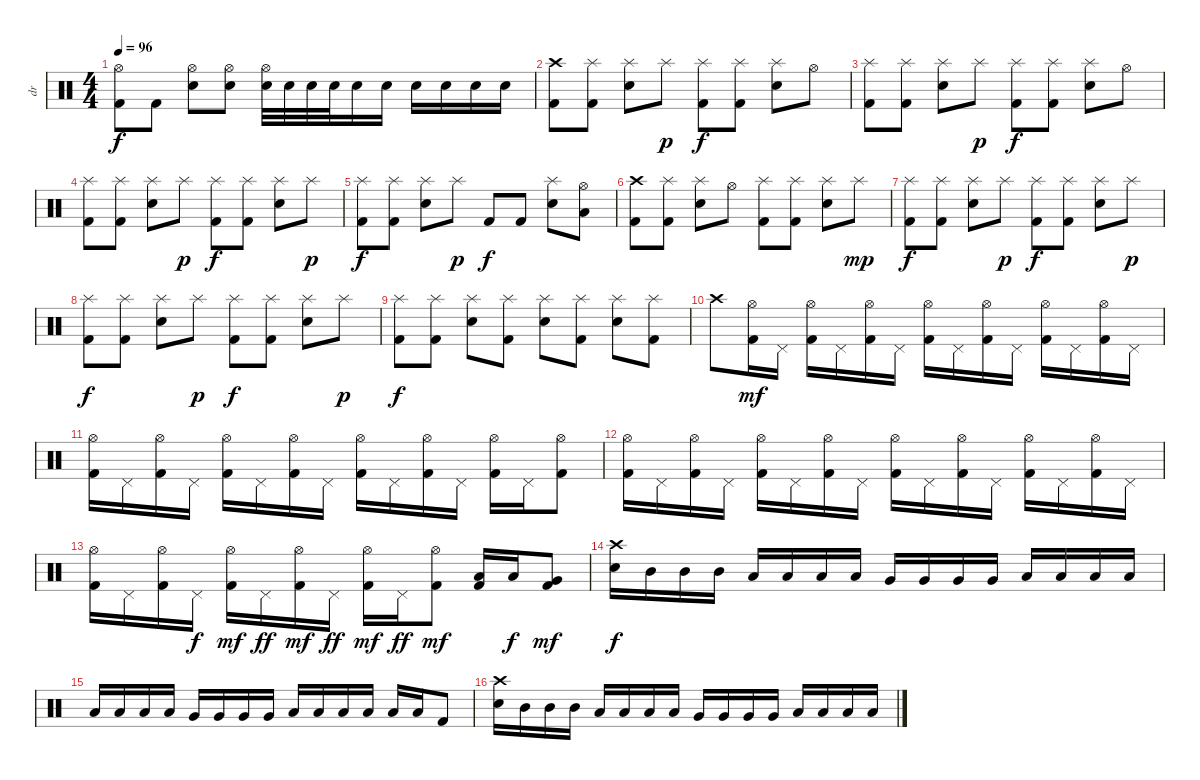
\track ("dr" "dr") {instrument percussion}
\staff {score}
\articulation defaults
\ts (4 4)
\tempo 96
\clef neutral
\ks c
("Hi-Hat (open)" "Kick (hit) 2").8{dy f} "Kick (hit) 2".8 ("Hi-Hat (open)" "Electric Snare (hit)").8 ("Hi-Hat (open)" "Electric Snare (hit)").8 ("Hi-Hat (open)" "Electric Snare (hit)").32 "Electric Snare (hit)".32 "Electric Snare (hit)".32 "Electric Snare (hit)".32 "Electric Snare (hit)".16 "Electric Snare (hit)".16 "Electric Snare (hit)".16 "Electric Snare (hit)".16 "Electric Snare (hit)".16 "Electric Snare (hit)".16 |
("Crash high (hit)" "Kick (hit) 2").8 ("Splash (hit)" "Kick (hit) 2").8 ("Splash (hit)" "Electric Snare (hit)").8 "Splash (hit)".8{dy p} ("Splash (hit)" "Kick (hit) 2").8{dy f} ("Splash (hit)" "Kick (hit) 2").8 ("Splash (hit)" "Electric Snare (hit)").8 "Hi-Hat (open)".8 |
("Splash (hit)" "Kick (hit) 2").8 ("Splash (hit)" "Kick (hit) 2").8 ("Splash (hit)" "Electric Snare (hit)").8 "Splash (hit)".8{dy p} ("Splash (hit)" "Kick (hit) 2").8{dy f} ("Splash (hit)" "Kick (hit) 2").8 ("Splash (hit)" "Electric Snare (hit)").8 "Hi-Hat (open)".8 |
("Splash (hit)" "Kick (hit) 2").8 ("Splash (hit)" "Kick (hit) 2").8 ("Splash (hit)" "Electric Snare (hit)").8 "Splash (hit)".8{dy p} ("Splash (hit)" "Kick (hit) 2").8{dy f} ("Splash (hit)" "Kick (hit) 2").8 ("Splash (hit)" "Electric Snare (hit)").8 "Splash (hit)".8{dy p} |
("Splash (hit)" "Kick (hit) 2").8{dy f} ("Splash (hit)" "Kick (hit) 2").8 ("Splash (hit)" "Electric Snare (hit)").8 "Splash (hit)".8{dy p} "Kick (hit) 2".8{dy f} "Kick (hit) 2".8 ("Splash (hit)" "Electric Snare (hit)").8 ("Hi-Hat (open)" "Low Tom (hit)").8 |
("Crash high (hit)" "Kick (hit) 2").8 ("Splash (hit)" "Kick (hit) 2").8 ("Splash (hit)" "Electric Snare (hit)").8 "Hi-Hat (open)".8 ("Splash (hit)" "Kick (hit) 2").8 ("Splash (hit)" "Kick (hit) 2").8 ("Splash (hit)" "Electric Snare (hit)").8 "Splash (hit)".8{dy mp} |
("Splash (hit)" "Kick (hit) 2").8{dy f} ("Splash (hit)" "Kick (hit) 2").8 ("Splash (hit)" "Electric Snare (hit)").8 "Splash (hit)".8{dy p} ("Splash (hit)" "Kick (hit) 2").8{dy f} ("Splash (hit)" "Kick (hit) 2").8 ("Splash (hit)" "Electric Snare (hit)").8 "Splash (hit)".8{dy p} |
("Splash (hit)" "Kick (hit) 2").8{dy f} ("Splash (hit)" "Kick (hit) 2").8 ("Splash (hit)" "Electric Snare (hit)").8 "Splash (hit)".8{dy p} ("Splash (hit)" "Kick (hit) 2").8{dy f} ("Splash (hit)" "Kick (hit) 2").8 ("Splash (hit)" "Electric Snare (hit)").8 "Splash (hit)".8{dy p} |
("Splash (hit)" "Kick (hit) 2").8{dy f} ("Splash (hit)" "Kick (hit) 2").8 ("Splash (hit)" "Electric Snare (hit)").8 ("Splash (hit)" "Kick (hit) 2").8 ("Splash (hit)" "Electric Snare (hit)").8 ("Splash (hit)" "Kick (hit) 2").8 ("Splash (hit)" "Electric Snare (hit)").8 ("Splash (hit)" "Kick (hit) 2").8 |
"Crash high (hit)".8 ("Hi-Hat (open)" "Kick (hit) 2").16{dy mf} "Pedal Hi-Hat (hit)".16 ("Hi-Hat (open)" "Kick (hit) 2").16 "Pedal Hi-Hat (hit)".16 ("Hi-Hat (open)" "Kick (hit) 2").16 "Pedal Hi-Hat (hit)".16 ("Hi-Hat (open)" "Kick (hit) 2").16 "Pedal Hi-Hat (hit)".16 ("Hi-Hat (open)" "Kick (hit) 2").16 "Pedal Hi-Hat (hit)".16 ("Hi-Hat (open)" "Kick (hit) 2").16 "Pedal Hi-Hat (hit)".16 ("Hi-Hat (open)" "Kick (hit) 2").16 "Pedal Hi-Hat (hit)".16 |
("Hi-Hat (open)" "Kick (hit) 2").16 "Pedal Hi-Hat (hit)".16 ("Hi-Hat (open)" "Kick (hit) 2").16 "Pedal Hi-Hat (hit)".16 ("Hi-Hat (open)" "Kick (hit) 2").16 "Pedal Hi-Hat (hit)".16 ("Hi-Hat (open)" "Kick (hit) 2").16 "Pedal Hi-Hat (hit)".16 ("Hi-Hat (open)" "Kick (hit) 2").16 "Pedal Hi-Hat (hit)".16 ("Hi-Hat (open)" "Kick (hit) 2").16 "Pedal Hi-Hat (hit)".16 ("Hi-Hat (open)" "Kick (hit) 2").16 "Pedal Hi-Hat (hit)".16 ("Hi-Hat (open)" "Kick (hit) 2").8 |
("Hi-Hat (open)" "Kick (hit) 2").16 "Pedal Hi-Hat (hit)".16 ("Hi-Hat (open)" "Kick (hit) 2").16 "Pedal Hi-Hat (hit)".16 ("Hi-Hat (open)" "Kick (hit) 2").16 "Pedal Hi-Hat (hit)".16 ("Hi-Hat (open)" "Kick (hit) 2").16 "Pedal Hi-Hat (hit)".16 ("Hi-Hat (open)" "Kick (hit) 2").16 "Pedal Hi-Hat (hit)".16 ("Hi-Hat (open)" "Kick (hit) 2").16 "Pedal Hi-Hat (hit)".16 ("Hi-Hat (open)" "Kick (hit) 2").16 "Pedal Hi-Hat (hit)".16 ("Hi-Hat (open)" "Kick (hit) 2").16 "Pedal Hi-Hat (hit)".16 |
("Hi-Hat (open)" "Kick (hit) 2").16 "Pedal Hi-Hat (hit)".16 ("Hi-Hat (open)" "Kick (hit) 2").16 "Pedal Hi-Hat (hit)".16{dy f} ("Hi-Hat (open)" "Kick (hit) 2").16{dy mf} "Pedal Hi-Hat (hit)".16{dy ff} ("Hi-Hat (open)" "Kick (hit) 2").16{dy mf} "Pedal Hi-Hat (hit)".16{dy ff} ("Hi-Hat (open)" "Kick (hit) 2").16{dy mf} "Pedal Hi-Hat (hit)".16{dy ff} ("Hi-Hat (open)" "Kick (hit) 2").8{dy mf} ("Low Tom (hit)" "Kick (hit) 2").16 "Low Tom (hit)".16{dy f} ("Very Low Tom (hit)" "Kick (hit) 2").8{dy mf} |
("Crash high (hit)" "Electric Snare (hit)").16{dy f} "Mid Tom (hit)".16 "Mid Tom (hit)".16 "Mid Tom (hit)".16 "Low Tom (hit)".16 "Low Tom (hit)".16 "Low Tom (hit)".16 "Low Tom (hit)".16 "Very Low Tom (hit)".16 "Very Low Tom (hit)".16 "Very Low Tom (hit)".16 "Very Low Tom (hit)".16 "Low Floor Tom (hit)".16 "Low Floor Tom (hit)".16 "Low Floor Tom (hit)".16 "Low Floor Tom (hit)".16 |
"Low Floor Tom (hit)".16 "Low Floor Tom (hit)".16 "Low Floor Tom (hit)".16 "Low Floor Tom (hit)".16 "Very Low Tom (hit)".16 "Very Low Tom (hit)".16 "Very Low Tom (hit)".16 "Very Low Tom (hit)".16 "Low Tom (hit)".16 "Low Tom (hit)".16 "Low Tom (hit)".16 "Low Tom (hit)".16 "Low Tom (hit)".16 "Low Tom (hit)".16 "Kick (hit) 2".8 |
("Crash high (hit)" "Electric Snare (hit)").16 "Mid Tom (hit)".16 "Mid Tom (hit)".16 "Mid Tom (hit)".16 "Low Tom (hit)".16 "Low Tom (hit)".16 "Low Tom (hit)".16 "Low Tom (hit)".16 "Very Low Tom (hit)".16 "Very Low Tom (hit)".16 "Very Low Tom (hit)".16 "Very Low Tom (hit)".16 "Low Floor Tom (hit)".16 "Low Floor Tom (hit)".16 "Low Floor Tom (hit)".16 "Low Floor Tom (hit)".16
